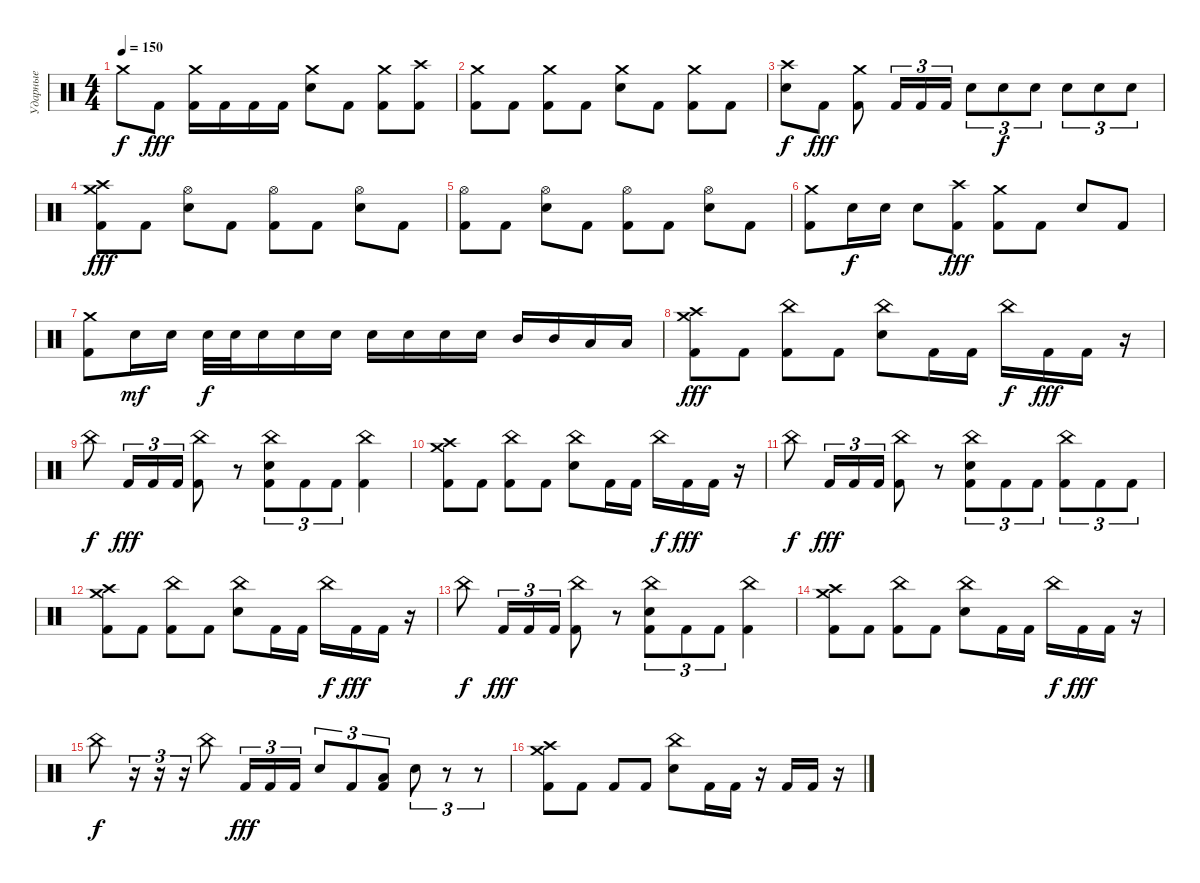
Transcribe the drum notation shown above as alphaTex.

\track ("Ударные" "Ударные") {instrument percussion}
\staff {score}
\articulation defaults
\ts (4 4)
\tempo 150
\clef neutral
\ks c "Crash medium (hit)".8{dy f} "Kick (hit) 2".8{dy fff}
("Crash medium (hit)" "Kick (hit) 2").16 "Kick (hit) 2".16 "Kick (hit) 2".16 "Kick (hit) 2".16 ("Crash medium (hit)" "Electric Snare (hit)").8 "Kick (hit) 2".8 ("Crash medium (hit)" "Kick (hit) 2").8 ("Crash high (hit)" "Kick (hit) 2").8 |
("Crash medium (hit)" "Kick (hit) 2").8 "Kick (hit) 2".8 ("Crash medium (hit)" "Kick (hit) 2").8 "Kick (hit) 2".8 ("Crash medium (hit)" "Electric Snare (hit)").8 "Kick (hit) 2".8 ("Crash medium (hit)" "Kick (hit) 2").8 "Kick (hit) 2".8 |
("Crash high (hit)" "Electric Snare (hit)").8{dy f} "Kick (hit) 2".8{dy fff} ("Crash medium (hit)" "Kick (hit) 2").8 "Kick (hit) 2".16{tu (3 2)} "Kick (hit) 2".16{tu (3 2)} "Kick (hit) 2".16{tu (3 2)} "Electric Snare (hit)".8{tu (3 2)} "Electric Snare (hit)".8{tu (3 2) dy f} "Electric Snare (hit)".8{tu (3 2)} "Electric Snare (hit)".8{tu (3 2)} "Electric Snare (hit)".8{tu (3 2)} "Electric Snare (hit)".8{tu (3 2)} |
("Crash high (hit)" "Crash medium (hit)" "Kick (hit) 2").8{dy fff} "Kick (hit) 2".8 ("Hi-Hat (open)" "Electric Snare (hit)").8 "Kick (hit) 2".8 ("Hi-Hat (open)" "Kick (hit) 2").8 "Kick (hit) 2".8 ("Hi-Hat (open)" "Electric Snare (hit)").8 "Kick (hit) 2".8 |
("Hi-Hat (open)" "Kick (hit) 2").8 "Kick (hit) 2".8 ("Hi-Hat (open)" "Electric Snare (hit)").8 "Kick (hit) 2".8 ("Hi-Hat (open)" "Kick (hit) 2").8 "Kick (hit) 2".8 ("Hi-Hat (open)" "Electric Snare (hit)").8 "Kick (hit) 2".8 |
("Crash medium (hit)" "Kick (hit) 2").8 "Electric Snare (hit)".16{dy f} "Electric Snare (hit)".16 "Electric Snare (hit)".8 ("Crash high (hit)" "Kick (hit) 2").8{dy fff} ("Crash medium (hit)" "Kick (hit) 2").8 "Kick (hit) 2".8 "Electric Snare (hit)".8 "Kick (hit) 2".8 |
("Crash medium (hit)" "Kick (hit) 2").8 "Electric Snare (hit)".16{dy mf} "Electric Snare (hit)".16 "Electric Snare (hit)".32{dy f} "Electric Snare (hit)".32 "Electric Snare (hit)".16 "Electric Snare (hit)".16 "Electric Snare (hit)".16 "Electric Snare (hit)".16 "Electric Snare (hit)".16 "Electric Snare (hit)".16 "Electric Snare (hit)".16 "Mid Tom (hit)".16 "Mid Tom (hit)".16 "Low Floor Tom (hit)".16 "Low Floor Tom (hit)".16 |
("Crash high (hit)" "Crash medium (hit)" "Kick (hit) 2").8{dy fff} "Kick (hit) 2".8 ("China (hit)" "Kick (hit) 2").8 "Kick (hit) 2".8 ("China (hit)" "Electric Snare (hit)").8 "Kick (hit) 2".16 "Kick (hit) 2".16 "China (hit)".16{dy f} "Kick (hit) 2".16{dy fff} "Kick (hit) 2".16 r.16 |
"China (hit)".8{dy f} "Kick (hit) 2".16{tu (3 2) dy fff} "Kick (hit) 2".16{tu (3 2)} "Kick (hit) 2".16{tu (3 2)} ("China (hit)" "Kick (hit) 2").8 r.8 ("China (hit)" "Electric Snare (hit)" "Kick (hit) 2").8{tu (3 2)} "Kick (hit) 2".8{tu (3 2)} "Kick (hit) 2".8{tu (3 2)} ("China (hit)" "Kick (hit) 2").4 |
("Crash high (hit)" "Crash medium (hit)" "Kick (hit) 2").8 "Kick (hit) 2".8 ("China (hit)" "Kick (hit) 2").8 "Kick (hit) 2".8 ("China (hit)" "Electric Snare (hit)").8 "Kick (hit) 2".16 "Kick (hit) 2".16 "China (hit)".16{dy f} "Kick (hit) 2".16{dy fff} "Kick (hit) 2".16 r.16 |
"China (hit)".8{dy f} "Kick (hit) 2".16{tu (3 2) dy fff} "Kick (hit) 2".16{tu (3 2)} "Kick (hit) 2".16{tu (3 2)} ("China (hit)" "Kick (hit) 2").8 r.8 ("China (hit)" "Electric Snare (hit)" "Kick (hit) 2").8{tu (3 2)} "Kick (hit) 2".8{tu (3 2)} "Kick (hit) 2".8{tu (3 2)} ("China (hit)" "Kick (hit) 2").8{tu (3 2)} "Kick (hit) 2".8{tu (3 2)} "Kick (hit) 2".8{tu (3 2)} |
("Crash high (hit)" "Crash medium (hit)" "Kick (hit) 2").8 "Kick (hit) 2".8 ("China (hit)" "Kick (hit) 2").8 "Kick (hit) 2".8 ("China (hit)" "Electric Snare (hit)").8 "Kick (hit) 2".16 "Kick (hit) 2".16 "China (hit)".16{dy f} "Kick (hit) 2".16{dy fff} "Kick (hit) 2".16 r.16 |
"China (hit)".8{dy f} "Kick (hit) 2".16{tu (3 2) dy fff} "Kick (hit) 2".16{tu (3 2)} "Kick (hit) 2".16{tu (3 2)} ("China (hit)" "Kick (hit) 2").8 r.8 ("China (hit)" "Electric Snare (hit)" "Kick (hit) 2").8{tu (3 2)} "Kick (hit) 2".8{tu (3 2)} "Kick (hit) 2".8{tu (3 2)} ("China (hit)" "Kick (hit) 2").4 |
("Crash high (hit)" "Crash medium (hit)" "Kick (hit) 2").8 "Kick (hit) 2".8 ("China (hit)" "Kick (hit) 2").8 "Kick (hit) 2".8 ("China (hit)" "Electric Snare (hit)").8 "Kick (hit) 2".16 "Kick (hit) 2".16 "China (hit)".16{dy f} "Kick (hit) 2".16{dy fff} "Kick (hit) 2".16 r.16 |
"China (hit)".8{dy f} r.16{tu (3 2)} r.16{tu (3 2)} r.16{tu (3 2)} "China (hit)".8 "Kick (hit) 2".16{tu (3 2) dy fff} "Kick (hit) 2".16{tu (3 2)} "Kick (hit) 2".16{tu (3 2)} "Electric Snare (hit)".8{tu (3 2)} "Kick (hit) 2".8{tu (3 2)} ("Low Floor Tom (hit)" "Kick (hit) 2").8{tu (3 2)} "Electric Snare (hit)".8{tu (3 2)} r.8{tu (3 2)} r.8{tu (3 2)} |
("Crash high (hit)" "Crash medium (hit)" "Kick (hit) 2").8 "Kick (hit) 2".8 "Kick (hit) 2".8 "Kick (hit) 2".8 ("China (hit)" "Electric Snare (hit)").8 "Kick (hit) 2".16 "Kick (hit) 2".16 r.16 "Kick (hit) 2".16 "Kick (hit) 2".16 r.16
